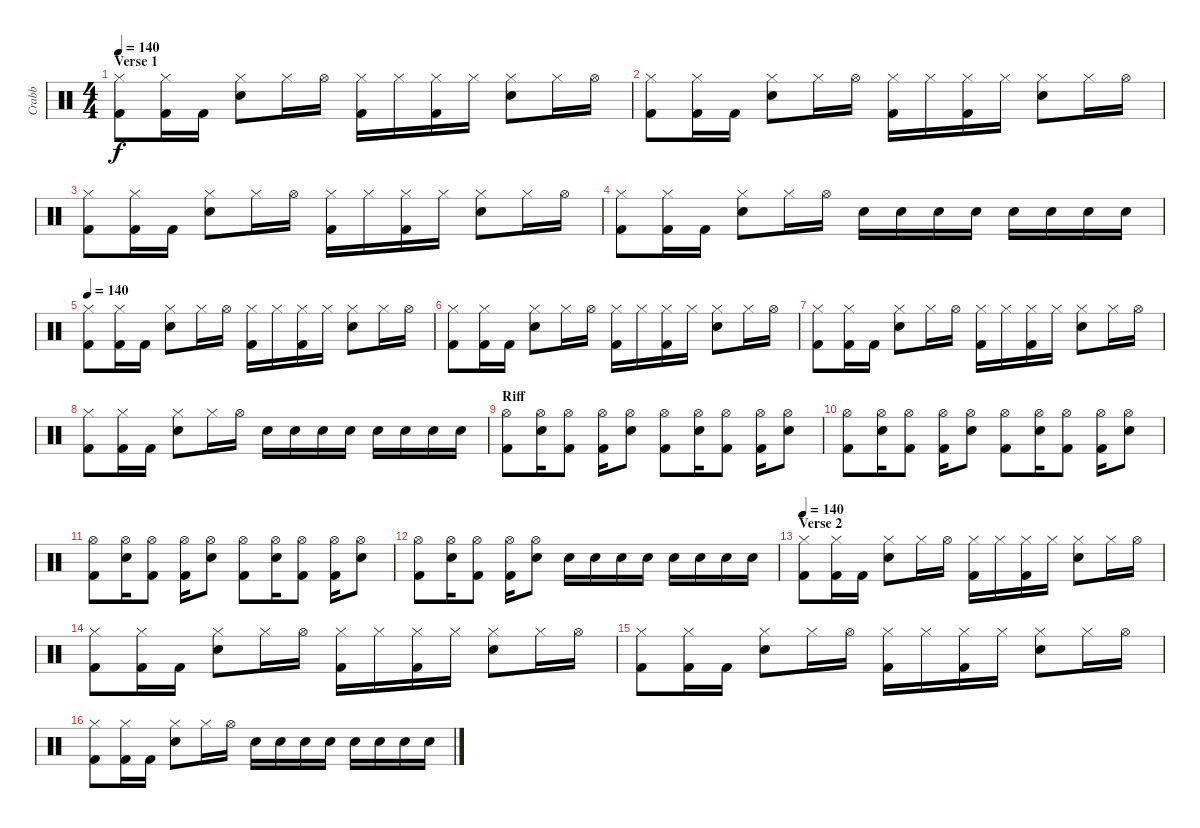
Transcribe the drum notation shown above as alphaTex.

\track ("Crabb" "Crabb") {instrument percussion}
\staff {score}
\articulation defaults
\ts (4 4)
\section ("" "Verse 1")
\tempo 130
\tempo 140
\clef neutral
\ks c
("Hi-Hat (closed)" "Kick (hit) 2").8{dy f} ("Hi-Hat (closed)" "Kick (hit) 2").16 "Kick (hit) 2".16 ("Hi-Hat (closed)" "Electric Snare (hit)").8 "Hi-Hat (closed)".16 "Hi-Hat (open)".16 ("Hi-Hat (closed)" "Kick (hit) 2").16 "Hi-Hat (closed)".16 ("Hi-Hat (closed)" "Kick (hit) 2").16 "Hi-Hat (closed)".16 ("Hi-Hat (closed)" "Electric Snare (hit)").8 "Hi-Hat (closed)".16 "Hi-Hat (open)".16 |
("Hi-Hat (closed)" "Kick (hit) 2").8 ("Hi-Hat (closed)" "Kick (hit) 2").16 "Kick (hit) 2".16 ("Hi-Hat (closed)" "Electric Snare (hit)").8 "Hi-Hat (closed)".16 "Hi-Hat (open)".16 ("Hi-Hat (closed)" "Kick (hit) 2").16 "Hi-Hat (closed)".16 ("Hi-Hat (closed)" "Kick (hit) 2").16 "Hi-Hat (closed)".16 ("Hi-Hat (closed)" "Electric Snare (hit)").8 "Hi-Hat (closed)".16 "Hi-Hat (open)".16 |
("Hi-Hat (closed)" "Kick (hit) 2").8 ("Hi-Hat (closed)" "Kick (hit) 2").16 "Kick (hit) 2".16 ("Hi-Hat (closed)" "Electric Snare (hit)").8 "Hi-Hat (closed)".16 "Hi-Hat (open)".16 ("Hi-Hat (closed)" "Kick (hit) 2").16 "Hi-Hat (closed)".16 ("Hi-Hat (closed)" "Kick (hit) 2").16 "Hi-Hat (closed)".16 ("Hi-Hat (closed)" "Electric Snare (hit)").8 "Hi-Hat (closed)".16 "Hi-Hat (open)".16 |
("Hi-Hat (closed)" "Kick (hit) 2").8 ("Hi-Hat (closed)" "Kick (hit) 2").16 "Kick (hit) 2".16 ("Hi-Hat (closed)" "Electric Snare (hit)").8 "Hi-Hat (closed)".16 "Hi-Hat (open)".16 "Electric Snare (hit)".16 "Electric Snare (hit)".16 "Electric Snare (hit)".16 "Electric Snare (hit)".16 "Electric Snare (hit)".16 "Electric Snare (hit)".16 "Electric Snare (hit)".16 "Electric Snare (hit)".16 |
\tempo 140
("Hi-Hat (closed)" "Kick (hit) 2").8 ("Hi-Hat (closed)" "Kick (hit) 2").16 "Kick (hit) 2".16 ("Hi-Hat (closed)" "Electric Snare (hit)").8 "Hi-Hat (closed)".16 "Hi-Hat (open)".16 ("Hi-Hat (closed)" "Kick (hit) 2").16 "Hi-Hat (closed)".16 ("Hi-Hat (closed)" "Kick (hit) 2").16 "Hi-Hat (closed)".16 ("Hi-Hat (closed)" "Electric Snare (hit)").8 "Hi-Hat (closed)".16 "Hi-Hat (open)".16 |
("Hi-Hat (closed)" "Kick (hit) 2").8 ("Hi-Hat (closed)" "Kick (hit) 2").16 "Kick (hit) 2".16 ("Hi-Hat (closed)" "Electric Snare (hit)").8 "Hi-Hat (closed)".16 "Hi-Hat (open)".16 ("Hi-Hat (closed)" "Kick (hit) 2").16 "Hi-Hat (closed)".16 ("Hi-Hat (closed)" "Kick (hit) 2").16 "Hi-Hat (closed)".16 ("Hi-Hat (closed)" "Electric Snare (hit)").8 "Hi-Hat (closed)".16 "Hi-Hat (open)".16 |
("Hi-Hat (closed)" "Kick (hit) 2").8 ("Hi-Hat (closed)" "Kick (hit) 2").16 "Kick (hit) 2".16 ("Hi-Hat (closed)" "Electric Snare (hit)").8 "Hi-Hat (closed)".16 "Hi-Hat (open)".16 ("Hi-Hat (closed)" "Kick (hit) 2").16 "Hi-Hat (closed)".16 ("Hi-Hat (closed)" "Kick (hit) 2").16 "Hi-Hat (closed)".16 ("Hi-Hat (closed)" "Electric Snare (hit)").8 "Hi-Hat (closed)".16 "Hi-Hat (open)".16 |
("Hi-Hat (closed)" "Kick (hit) 2").8 ("Hi-Hat (closed)" "Kick (hit) 2").16 "Kick (hit) 2".16 ("Hi-Hat (closed)" "Electric Snare (hit)").8 "Hi-Hat (closed)".16 "Hi-Hat (open)".16 "Electric Snare (hit)".16 "Electric Snare (hit)".16 "Electric Snare (hit)".16 "Electric Snare (hit)".16 "Electric Snare (hit)".16 "Electric Snare (hit)".16 "Electric Snare (hit)".16 "Electric Snare (hit)".16 |
\section ("" "Riff")
("Hi-Hat (open)" "Kick (hit) 2").8 ("Hi-Hat (open)" "Electric Snare (hit)").16 ("Hi-Hat (open)" "Kick (hit) 2").8 ("Hi-Hat (open)" "Kick (hit) 2").16 ("Hi-Hat (open)" "Electric Snare (hit)").8 ("Hi-Hat (open)" "Kick (hit) 2").8 ("Hi-Hat (open)" "Electric Snare (hit)").16 ("Hi-Hat (open)" "Kick (hit) 2").8 ("Hi-Hat (open)" "Kick (hit) 2").16 ("Hi-Hat (open)" "Electric Snare (hit)").8 |
("Hi-Hat (open)" "Kick (hit) 2").8 ("Hi-Hat (open)" "Electric Snare (hit)").16 ("Hi-Hat (open)" "Kick (hit) 2").8 ("Hi-Hat (open)" "Kick (hit) 2").16 ("Hi-Hat (open)" "Electric Snare (hit)").8 ("Hi-Hat (open)" "Kick (hit) 2").8 ("Hi-Hat (open)" "Electric Snare (hit)").16 ("Hi-Hat (open)" "Kick (hit) 2").8 ("Hi-Hat (open)" "Kick (hit) 2").16 ("Hi-Hat (open)" "Electric Snare (hit)").8 |
("Hi-Hat (open)" "Kick (hit) 2").8 ("Hi-Hat (open)" "Electric Snare (hit)").16 ("Hi-Hat (open)" "Kick (hit) 2").8 ("Hi-Hat (open)" "Kick (hit) 2").16 ("Hi-Hat (open)" "Electric Snare (hit)").8 ("Hi-Hat (open)" "Kick (hit) 2").8 ("Hi-Hat (open)" "Electric Snare (hit)").16 ("Hi-Hat (open)" "Kick (hit) 2").8 ("Hi-Hat (open)" "Kick (hit) 2").16 ("Hi-Hat (open)" "Electric Snare (hit)").8 |
("Hi-Hat (open)" "Kick (hit) 2").8 ("Hi-Hat (open)" "Electric Snare (hit)").16 ("Hi-Hat (open)" "Kick (hit) 2").8 ("Hi-Hat (open)" "Kick (hit) 2").16 ("Hi-Hat (open)" "Electric Snare (hit)").8 "Electric Snare (hit)".16 "Electric Snare (hit)".16 "Electric Snare (hit)".16 "Electric Snare (hit)".16 "Electric Snare (hit)".16 "Electric Snare (hit)".16 "Electric Snare (hit)".16 "Electric Snare (hit)".16 |
\section ("" "Verse 2")
\tempo 130
\tempo 140
("Hi-Hat (closed)" "Kick (hit) 2").8 ("Hi-Hat (closed)" "Kick (hit) 2").16 "Kick (hit) 2".16 ("Hi-Hat (closed)" "Electric Snare (hit)").8 "Hi-Hat (closed)".16 "Hi-Hat (open)".16 ("Hi-Hat (closed)" "Kick (hit) 2").16 "Hi-Hat (closed)".16 ("Hi-Hat (closed)" "Kick (hit) 2").16 "Hi-Hat (closed)".16 ("Hi-Hat (closed)" "Electric Snare (hit)").8 "Hi-Hat (closed)".16 "Hi-Hat (open)".16 |
("Hi-Hat (closed)" "Kick (hit) 2").8 ("Hi-Hat (closed)" "Kick (hit) 2").16 "Kick (hit) 2".16 ("Hi-Hat (closed)" "Electric Snare (hit)").8 "Hi-Hat (closed)".16 "Hi-Hat (open)".16 ("Hi-Hat (closed)" "Kick (hit) 2").16 "Hi-Hat (closed)".16 ("Hi-Hat (closed)" "Kick (hit) 2").16 "Hi-Hat (closed)".16 ("Hi-Hat (closed)" "Electric Snare (hit)").8 "Hi-Hat (closed)".16 "Hi-Hat (open)".16 |
("Hi-Hat (closed)" "Kick (hit) 2").8 ("Hi-Hat (closed)" "Kick (hit) 2").16 "Kick (hit) 2".16 ("Hi-Hat (closed)" "Electric Snare (hit)").8 "Hi-Hat (closed)".16 "Hi-Hat (open)".16 ("Hi-Hat (closed)" "Kick (hit) 2").16 "Hi-Hat (closed)".16 ("Hi-Hat (closed)" "Kick (hit) 2").16 "Hi-Hat (closed)".16 ("Hi-Hat (closed)" "Electric Snare (hit)").8 "Hi-Hat (closed)".16 "Hi-Hat (open)".16 |
("Hi-Hat (closed)" "Kick (hit) 2").8 ("Hi-Hat (closed)" "Kick (hit) 2").16 "Kick (hit) 2".16 ("Hi-Hat (closed)" "Electric Snare (hit)").8 "Hi-Hat (closed)".16 "Hi-Hat (open)".16 "Electric Snare (hit)".16 "Electric Snare (hit)".16 "Electric Snare (hit)".16 "Electric Snare (hit)".16 "Electric Snare (hit)".16 "Electric Snare (hit)".16 "Electric Snare (hit)".16 "Electric Snare (hit)".16
